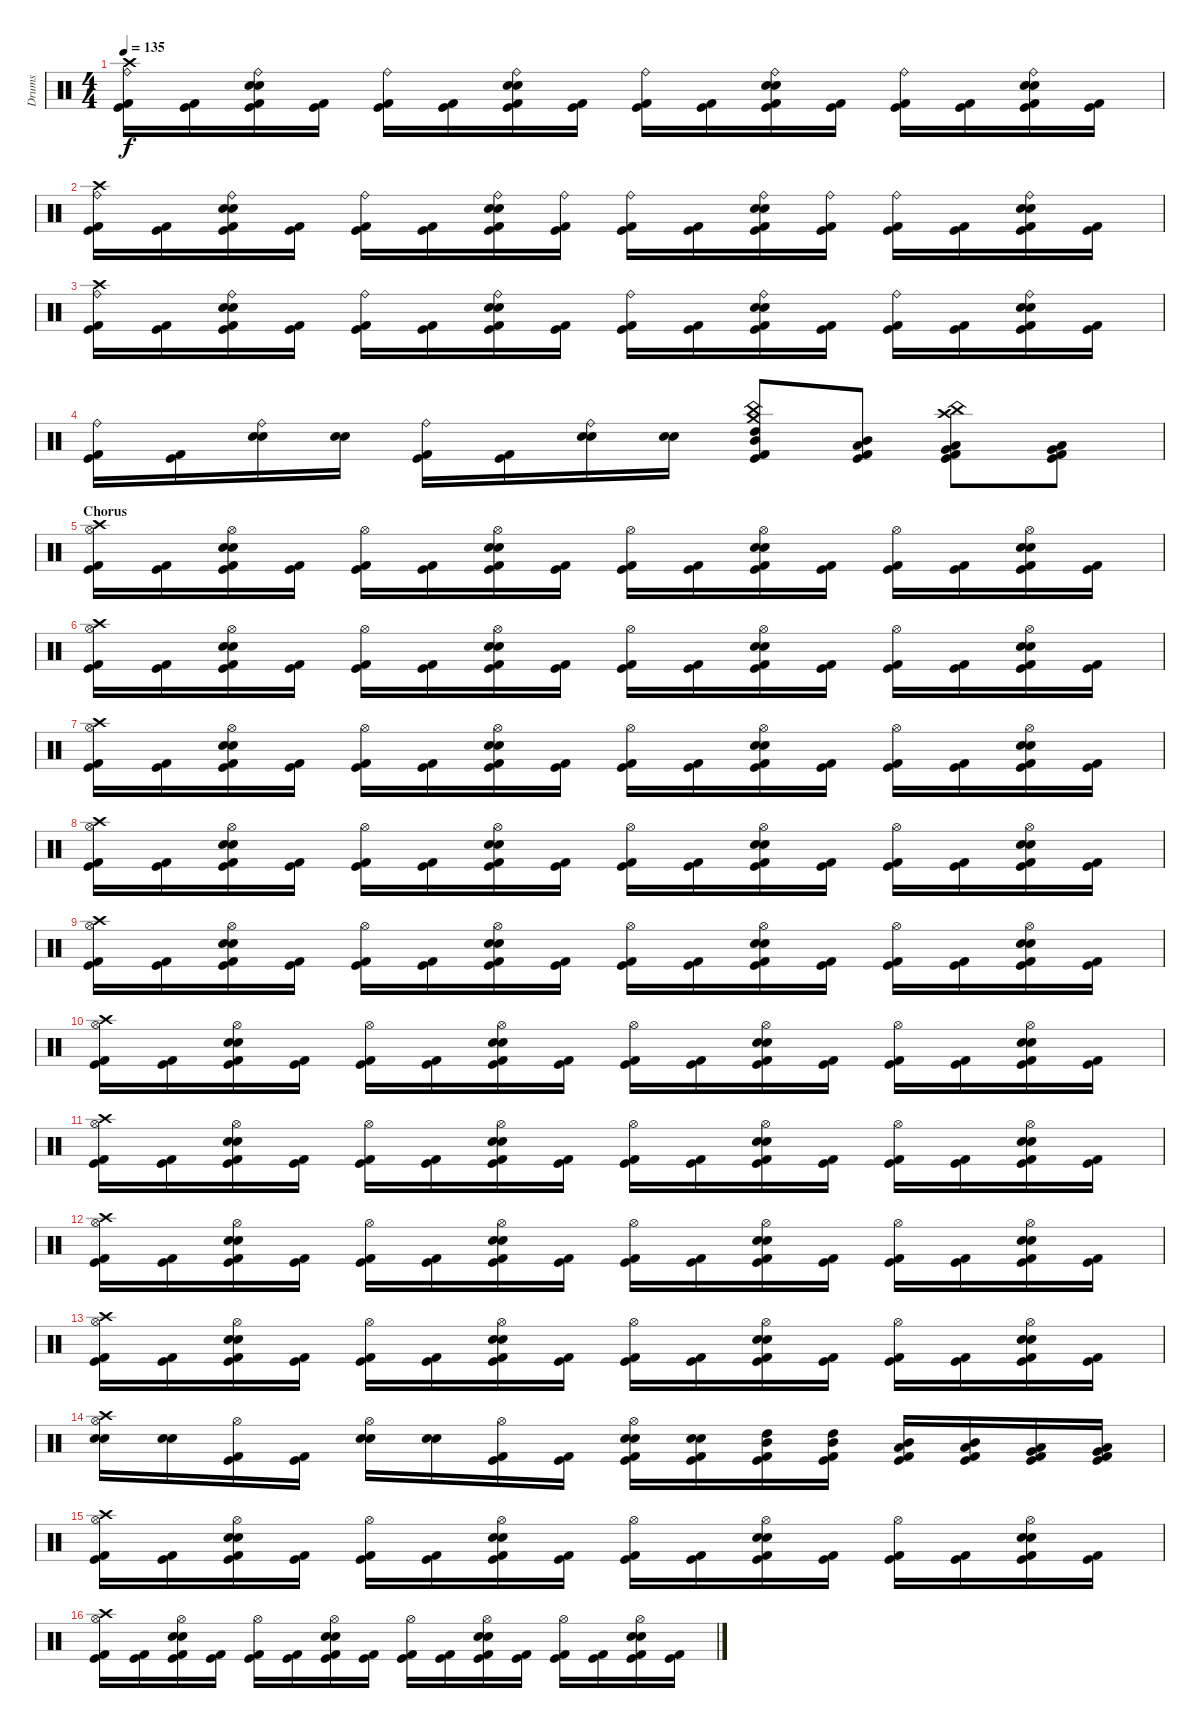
\track ("Drums" "Drums") {instrument percussion}
\staff {score}
\articulation defaults
\ts (4 4)
\tempo 135
\clef neutral
\ks c
("Crash high (hit)" "Ride (bell)" "Kick (hit) 2" "Kick (hit)").16{dy f} ("Kick (hit) 2" "Kick (hit)").16 ("Ride (bell)" "Snare (hit) 2" "Electric Snare (hit)" "Kick (hit) 2" "Kick (hit)").16 ("Kick (hit) 2" "Kick (hit)").16 ("Ride (bell)" "Kick (hit) 2" "Kick (hit)").16 ("Kick (hit) 2" "Kick (hit)").16 ("Ride (bell)" "Snare (hit) 2" "Electric Snare (hit)" "Kick (hit) 2" "Kick (hit)").16 ("Kick (hit) 2" "Kick (hit)").16 ("Ride (bell)" "Kick (hit) 2" "Kick (hit)").16 ("Kick (hit) 2" "Kick (hit)").16 ("Ride (bell)" "Snare (hit) 2" "Electric Snare (hit)" "Kick (hit) 2" "Kick (hit)").16 ("Kick (hit) 2" "Kick (hit)").16 ("Ride (bell)" "Kick (hit) 2" "Kick (hit)").16 ("Kick (hit) 2" "Kick (hit)").16 ("Ride (bell)" "Snare (hit) 2" "Electric Snare (hit)" "Kick (hit) 2" "Kick (hit)").16 ("Kick (hit) 2" "Kick (hit)").16 |
("Crash high (hit)" "Ride (bell)" "Kick (hit) 2" "Kick (hit)").16 ("Kick (hit) 2" "Kick (hit)").16 ("Ride (bell)" "Snare (hit) 2" "Electric Snare (hit)" "Kick (hit) 2" "Kick (hit)").16 ("Kick (hit) 2" "Kick (hit)").16 ("Ride (bell)" "Kick (hit) 2" "Kick (hit)").16 ("Kick (hit) 2" "Kick (hit)").16 ("Ride (bell)" "Snare (hit) 2" "Electric Snare (hit)" "Kick (hit) 2" "Kick (hit)").16 ("Ride (bell)" "Kick (hit) 2" "Kick (hit)").16 ("Ride (bell)" "Kick (hit) 2" "Kick (hit)").16 ("Kick (hit) 2" "Kick (hit)").16 ("Ride (bell)" "Snare (hit) 2" "Electric Snare (hit)" "Kick (hit) 2" "Kick (hit)").16 ("Ride (bell)" "Kick (hit) 2" "Kick (hit)").16 ("Ride (bell)" "Kick (hit) 2" "Kick (hit)").16 ("Kick (hit) 2" "Kick (hit)").16 ("Ride (bell)" "Snare (hit) 2" "Electric Snare (hit)" "Kick (hit) 2" "Kick (hit)").16 ("Kick (hit) 2" "Kick (hit)").16 |
("Crash high (hit)" "Ride (bell)" "Kick (hit) 2" "Kick (hit)").16 ("Kick (hit) 2" "Kick (hit)").16 ("Ride (bell)" "Snare (hit) 2" "Electric Snare (hit)" "Kick (hit) 2" "Kick (hit)").16 ("Kick (hit) 2" "Kick (hit)").16 ("Ride (bell)" "Kick (hit) 2" "Kick (hit)").16 ("Kick (hit) 2" "Kick (hit)").16 ("Ride (bell)" "Snare (hit) 2" "Electric Snare (hit)" "Kick (hit) 2" "Kick (hit)").16 ("Kick (hit) 2" "Kick (hit)").16 ("Ride (bell)" "Kick (hit) 2" "Kick (hit)").16 ("Kick (hit) 2" "Kick (hit)").16 ("Ride (bell)" "Snare (hit) 2" "Electric Snare (hit)" "Kick (hit) 2" "Kick (hit)").16 ("Kick (hit) 2" "Kick (hit)").16 ("Ride (bell)" "Kick (hit) 2" "Kick (hit)").16 ("Kick (hit) 2" "Kick (hit)").16 ("Ride (bell)" "Snare (hit) 2" "Electric Snare (hit)" "Kick (hit) 2" "Kick (hit)").16 ("Kick (hit) 2" "Kick (hit)").16 |
("Ride (bell)" "Kick (hit) 2" "Kick (hit)").16 ("Kick (hit) 2" "Kick (hit)").16 ("Ride (bell)" "Electric Snare (hit)" "Snare (hit) 2").16 ("Electric Snare (hit)" "Snare (hit) 2").16 ("Ride (bell)" "Kick (hit) 2" "Kick (hit)").16 ("Kick (hit) 2" "Kick (hit)").16 ("Ride (bell)" "Electric Snare (hit)" "Snare (hit) 2").16 ("Electric Snare (hit)" "Snare (hit) 2").16 ("Crash medium (hit)" "China (hit)" "High Tom (hit)" "Mid Tom (hit)" "Kick (hit) 2" "Kick (hit)").8 ("Mid Tom (hit)" "Low Tom (hit)" "Kick (hit) 2" "Kick (hit)").8 ("Crash high (hit)" "China (hit)" "Low Tom (hit)" "Very Low Tom (hit)" "Kick (hit)" "Kick (hit) 2").8 ("Low Floor Tom (hit)" "Very Low Tom (hit)" "Kick (hit) 2" "Kick (hit)").8 |
\section ("" "Chorus")
("Crash high (hit)" "Hi-Hat (open)" "Kick (hit) 2" "Kick (hit)").16 ("Kick (hit) 2" "Kick (hit)").16 ("Hi-Hat (open)" "Snare (hit) 2" "Electric Snare (hit)" "Kick (hit) 2" "Kick (hit)").16 ("Kick (hit) 2" "Kick (hit)").16 ("Hi-Hat (open)" "Kick (hit) 2" "Kick (hit)").16 ("Kick (hit) 2" "Kick (hit)").16 ("Hi-Hat (open)" "Snare (hit) 2" "Electric Snare (hit)" "Kick (hit) 2" "Kick (hit)").16 ("Kick (hit) 2" "Kick (hit)").16 ("Hi-Hat (open)" "Kick (hit) 2" "Kick (hit)").16 ("Kick (hit) 2" "Kick (hit)").16 ("Hi-Hat (open)" "Snare (hit) 2" "Electric Snare (hit)" "Kick (hit) 2" "Kick (hit)").16 ("Kick (hit) 2" "Kick (hit)").16 ("Hi-Hat (open)" "Kick (hit) 2" "Kick (hit)").16 ("Kick (hit) 2" "Kick (hit)").16 ("Hi-Hat (open)" "Snare (hit) 2" "Electric Snare (hit)" "Kick (hit) 2" "Kick (hit)").16 ("Kick (hit) 2" "Kick (hit)").16 |
("Crash high (hit)" "Hi-Hat (open)" "Kick (hit) 2" "Kick (hit)").16 ("Kick (hit) 2" "Kick (hit)").16 ("Hi-Hat (open)" "Snare (hit) 2" "Electric Snare (hit)" "Kick (hit) 2" "Kick (hit)").16 ("Kick (hit) 2" "Kick (hit)").16 ("Hi-Hat (open)" "Kick (hit) 2" "Kick (hit)").16 ("Kick (hit) 2" "Kick (hit)").16 ("Hi-Hat (open)" "Snare (hit) 2" "Electric Snare (hit)" "Kick (hit) 2" "Kick (hit)").16 ("Kick (hit) 2" "Kick (hit)").16 ("Hi-Hat (open)" "Kick (hit) 2" "Kick (hit)").16 ("Kick (hit) 2" "Kick (hit)").16 ("Hi-Hat (open)" "Snare (hit) 2" "Electric Snare (hit)" "Kick (hit) 2" "Kick (hit)").16 ("Kick (hit) 2" "Kick (hit)").16 ("Hi-Hat (open)" "Kick (hit) 2" "Kick (hit)").16 ("Kick (hit) 2" "Kick (hit)").16 ("Hi-Hat (open)" "Snare (hit) 2" "Electric Snare (hit)" "Kick (hit) 2" "Kick (hit)").16 ("Kick (hit) 2" "Kick (hit)").16 |
("Crash high (hit)" "Hi-Hat (open)" "Kick (hit) 2" "Kick (hit)").16 ("Kick (hit) 2" "Kick (hit)").16 ("Hi-Hat (open)" "Snare (hit) 2" "Electric Snare (hit)" "Kick (hit) 2" "Kick (hit)").16 ("Kick (hit) 2" "Kick (hit)").16 ("Hi-Hat (open)" "Kick (hit) 2" "Kick (hit)").16 ("Kick (hit) 2" "Kick (hit)").16 ("Hi-Hat (open)" "Snare (hit) 2" "Electric Snare (hit)" "Kick (hit) 2" "Kick (hit)").16 ("Kick (hit) 2" "Kick (hit)").16 ("Hi-Hat (open)" "Kick (hit) 2" "Kick (hit)").16 ("Kick (hit) 2" "Kick (hit)").16 ("Hi-Hat (open)" "Snare (hit) 2" "Electric Snare (hit)" "Kick (hit) 2" "Kick (hit)").16 ("Kick (hit) 2" "Kick (hit)").16 ("Hi-Hat (open)" "Kick (hit) 2" "Kick (hit)").16 ("Kick (hit) 2" "Kick (hit)").16 ("Hi-Hat (open)" "Snare (hit) 2" "Electric Snare (hit)" "Kick (hit) 2" "Kick (hit)").16 ("Kick (hit) 2" "Kick (hit)").16 |
("Crash high (hit)" "Hi-Hat (open)" "Kick (hit) 2" "Kick (hit)").16 ("Kick (hit) 2" "Kick (hit)").16 ("Hi-Hat (open)" "Snare (hit) 2" "Electric Snare (hit)" "Kick (hit) 2" "Kick (hit)").16 ("Kick (hit) 2" "Kick (hit)").16 ("Hi-Hat (open)" "Kick (hit) 2" "Kick (hit)").16 ("Kick (hit) 2" "Kick (hit)").16 ("Hi-Hat (open)" "Snare (hit) 2" "Electric Snare (hit)" "Kick (hit) 2" "Kick (hit)").16 ("Kick (hit) 2" "Kick (hit)").16 ("Hi-Hat (open)" "Kick (hit) 2" "Kick (hit)").16 ("Kick (hit) 2" "Kick (hit)").16 ("Hi-Hat (open)" "Snare (hit) 2" "Electric Snare (hit)" "Kick (hit) 2" "Kick (hit)").16 ("Kick (hit) 2" "Kick (hit)").16 ("Hi-Hat (open)" "Kick (hit) 2" "Kick (hit)").16 ("Kick (hit) 2" "Kick (hit)").16 ("Hi-Hat (open)" "Snare (hit) 2" "Electric Snare (hit)" "Kick (hit) 2" "Kick (hit)").16 ("Kick (hit) 2" "Kick (hit)").16 |
("Crash high (hit)" "Hi-Hat (open)" "Kick (hit) 2" "Kick (hit)").16 ("Kick (hit) 2" "Kick (hit)").16 ("Hi-Hat (open)" "Snare (hit) 2" "Electric Snare (hit)" "Kick (hit) 2" "Kick (hit)").16 ("Kick (hit) 2" "Kick (hit)").16 ("Hi-Hat (open)" "Kick (hit) 2" "Kick (hit)").16 ("Kick (hit) 2" "Kick (hit)").16 ("Hi-Hat (open)" "Snare (hit) 2" "Electric Snare (hit)" "Kick (hit) 2" "Kick (hit)").16 ("Kick (hit) 2" "Kick (hit)").16 ("Hi-Hat (open)" "Kick (hit) 2" "Kick (hit)").16 ("Kick (hit) 2" "Kick (hit)").16 ("Hi-Hat (open)" "Snare (hit) 2" "Electric Snare (hit)" "Kick (hit) 2" "Kick (hit)").16 ("Kick (hit) 2" "Kick (hit)").16 ("Hi-Hat (open)" "Kick (hit) 2" "Kick (hit)").16 ("Kick (hit) 2" "Kick (hit)").16 ("Hi-Hat (open)" "Snare (hit) 2" "Electric Snare (hit)" "Kick (hit) 2" "Kick (hit)").16 ("Kick (hit) 2" "Kick (hit)").16 |
("Crash high (hit)" "Hi-Hat (open)" "Kick (hit) 2" "Kick (hit)").16 ("Kick (hit) 2" "Kick (hit)").16 ("Hi-Hat (open)" "Snare (hit) 2" "Electric Snare (hit)" "Kick (hit) 2" "Kick (hit)").16 ("Kick (hit) 2" "Kick (hit)").16 ("Hi-Hat (open)" "Kick (hit) 2" "Kick (hit)").16 ("Kick (hit) 2" "Kick (hit)").16 ("Hi-Hat (open)" "Snare (hit) 2" "Electric Snare (hit)" "Kick (hit) 2" "Kick (hit)").16 ("Kick (hit) 2" "Kick (hit)").16 ("Hi-Hat (open)" "Kick (hit) 2" "Kick (hit)").16 ("Kick (hit) 2" "Kick (hit)").16 ("Hi-Hat (open)" "Snare (hit) 2" "Electric Snare (hit)" "Kick (hit) 2" "Kick (hit)").16 ("Kick (hit) 2" "Kick (hit)").16 ("Hi-Hat (open)" "Kick (hit) 2" "Kick (hit)").16 ("Kick (hit) 2" "Kick (hit)").16 ("Hi-Hat (open)" "Snare (hit) 2" "Electric Snare (hit)" "Kick (hit) 2" "Kick (hit)").16 ("Kick (hit) 2" "Kick (hit)").16 |
("Crash high (hit)" "Hi-Hat (open)" "Kick (hit) 2" "Kick (hit)").16 ("Kick (hit) 2" "Kick (hit)").16 ("Hi-Hat (open)" "Snare (hit) 2" "Electric Snare (hit)" "Kick (hit) 2" "Kick (hit)").16 ("Kick (hit) 2" "Kick (hit)").16 ("Hi-Hat (open)" "Kick (hit) 2" "Kick (hit)").16 ("Kick (hit) 2" "Kick (hit)").16 ("Hi-Hat (open)" "Snare (hit) 2" "Electric Snare (hit)" "Kick (hit) 2" "Kick (hit)").16 ("Kick (hit) 2" "Kick (hit)").16 ("Hi-Hat (open)" "Kick (hit) 2" "Kick (hit)").16 ("Kick (hit) 2" "Kick (hit)").16 ("Hi-Hat (open)" "Snare (hit) 2" "Electric Snare (hit)" "Kick (hit) 2" "Kick (hit)").16 ("Kick (hit) 2" "Kick (hit)").16 ("Hi-Hat (open)" "Kick (hit) 2" "Kick (hit)").16 ("Kick (hit) 2" "Kick (hit)").16 ("Hi-Hat (open)" "Snare (hit) 2" "Electric Snare (hit)" "Kick (hit) 2" "Kick (hit)").16 ("Kick (hit) 2" "Kick (hit)").16 |
("Crash high (hit)" "Hi-Hat (open)" "Kick (hit) 2" "Kick (hit)").16 ("Kick (hit) 2" "Kick (hit)").16 ("Hi-Hat (open)" "Snare (hit) 2" "Electric Snare (hit)" "Kick (hit) 2" "Kick (hit)").16 ("Kick (hit) 2" "Kick (hit)").16 ("Hi-Hat (open)" "Kick (hit) 2" "Kick (hit)").16 ("Kick (hit) 2" "Kick (hit)").16 ("Hi-Hat (open)" "Snare (hit) 2" "Electric Snare (hit)" "Kick (hit) 2" "Kick (hit)").16 ("Kick (hit) 2" "Kick (hit)").16 ("Hi-Hat (open)" "Kick (hit) 2" "Kick (hit)").16 ("Kick (hit) 2" "Kick (hit)").16 ("Hi-Hat (open)" "Snare (hit) 2" "Electric Snare (hit)" "Kick (hit) 2" "Kick (hit)").16 ("Kick (hit) 2" "Kick (hit)").16 ("Hi-Hat (open)" "Kick (hit) 2" "Kick (hit)").16 ("Kick (hit) 2" "Kick (hit)").16 ("Hi-Hat (open)" "Snare (hit) 2" "Electric Snare (hit)" "Kick (hit) 2" "Kick (hit)").16 ("Kick (hit) 2" "Kick (hit)").16 |
("Crash high (hit)" "Hi-Hat (open)" "Kick (hit) 2" "Kick (hit)").16 ("Kick (hit) 2" "Kick (hit)").16 ("Hi-Hat (open)" "Snare (hit) 2" "Electric Snare (hit)" "Kick (hit) 2" "Kick (hit)").16 ("Kick (hit) 2" "Kick (hit)").16 ("Hi-Hat (open)" "Kick (hit) 2" "Kick (hit)").16 ("Kick (hit) 2" "Kick (hit)").16 ("Hi-Hat (open)" "Snare (hit) 2" "Electric Snare (hit)" "Kick (hit) 2" "Kick (hit)").16 ("Kick (hit) 2" "Kick (hit)").16 ("Hi-Hat (open)" "Kick (hit) 2" "Kick (hit)").16 ("Kick (hit) 2" "Kick (hit)").16 ("Hi-Hat (open)" "Snare (hit) 2" "Electric Snare (hit)" "Kick (hit) 2" "Kick (hit)").16 ("Kick (hit) 2" "Kick (hit)").16 ("Hi-Hat (open)" "Kick (hit) 2" "Kick (hit)").16 ("Kick (hit) 2" "Kick (hit)").16 ("Hi-Hat (open)" "Snare (hit) 2" "Electric Snare (hit)" "Kick (hit) 2" "Kick (hit)").16 ("Kick (hit) 2" "Kick (hit)").16 |
("Crash high (hit)" "Hi-Hat (open)" "Electric Snare (hit)" "Snare (hit) 2").16 ("Snare (hit) 2" "Electric Snare (hit)").16 ("Hi-Hat (open)" "Kick (hit) 2" "Kick (hit)").16 ("Kick (hit) 2" "Kick (hit)").16 ("Hi-Hat (open)" "Electric Snare (hit)" "Snare (hit) 2").16 ("Electric Snare (hit)" "Snare (hit) 2").16 ("Hi-Hat (open)" "Kick (hit) 2" "Kick (hit)").16 ("Kick (hit) 2" "Kick (hit)").16 ("Hi-Hat (open)" "Electric Snare (hit)" "Snare (hit) 2" "Kick (hit) 2" "Kick (hit)").16 ("Electric Snare (hit)" "Snare (hit) 2" "Kick (hit) 2" "Kick (hit)").16 ("High Tom (hit)" "Mid Tom (hit)" "Kick (hit) 2" "Kick (hit)").16 ("High Tom (hit)" "Mid Tom (hit)" "Kick (hit) 2" "Kick (hit)").16 ("Mid Tom (hit)" "Low Tom (hit)" "Kick (hit) 2" "Kick (hit)").16 ("Mid Tom (hit)" "Low Tom (hit)" "Kick (hit) 2" "Kick (hit)").16 ("Low Tom (hit)" "Very Low Tom (hit)" "Kick (hit) 2" "Kick (hit)").16 ("Low Tom (hit)" "Very Low Tom (hit)" "Kick (hit) 2" "Kick (hit)").16 |
("Crash high (hit)" "Hi-Hat (open)" "Kick (hit) 2" "Kick (hit)").16 ("Kick (hit) 2" "Kick (hit)").16 ("Hi-Hat (open)" "Snare (hit) 2" "Electric Snare (hit)" "Kick (hit) 2" "Kick (hit)").16 ("Kick (hit) 2" "Kick (hit)").16 ("Hi-Hat (open)" "Kick (hit) 2" "Kick (hit)").16 ("Kick (hit) 2" "Kick (hit)").16 ("Hi-Hat (open)" "Snare (hit) 2" "Electric Snare (hit)" "Kick (hit) 2" "Kick (hit)").16 ("Kick (hit) 2" "Kick (hit)").16 ("Hi-Hat (open)" "Kick (hit) 2" "Kick (hit)").16 ("Kick (hit) 2" "Kick (hit)").16 ("Hi-Hat (open)" "Snare (hit) 2" "Electric Snare (hit)" "Kick (hit) 2" "Kick (hit)").16 ("Kick (hit) 2" "Kick (hit)").16 ("Hi-Hat (open)" "Kick (hit) 2" "Kick (hit)").16 ("Kick (hit) 2" "Kick (hit)").16 ("Hi-Hat (open)" "Snare (hit) 2" "Electric Snare (hit)" "Kick (hit) 2" "Kick (hit)").16 ("Kick (hit) 2" "Kick (hit)").16 |
("Crash high (hit)" "Hi-Hat (open)" "Kick (hit) 2" "Kick (hit)").16 ("Kick (hit) 2" "Kick (hit)").16 ("Hi-Hat (open)" "Snare (hit) 2" "Electric Snare (hit)" "Kick (hit) 2" "Kick (hit)").16 ("Kick (hit) 2" "Kick (hit)").16 ("Hi-Hat (open)" "Kick (hit) 2" "Kick (hit)").16 ("Kick (hit) 2" "Kick (hit)").16 ("Hi-Hat (open)" "Snare (hit) 2" "Electric Snare (hit)" "Kick (hit) 2" "Kick (hit)").16 ("Kick (hit) 2" "Kick (hit)").16 ("Hi-Hat (open)" "Kick (hit) 2" "Kick (hit)").16 ("Kick (hit) 2" "Kick (hit)").16 ("Hi-Hat (open)" "Snare (hit) 2" "Electric Snare (hit)" "Kick (hit) 2" "Kick (hit)").16 ("Kick (hit) 2" "Kick (hit)").16 ("Hi-Hat (open)" "Kick (hit) 2" "Kick (hit)").16 ("Kick (hit) 2" "Kick (hit)").16 ("Hi-Hat (open)" "Snare (hit) 2" "Electric Snare (hit)" "Kick (hit) 2" "Kick (hit)").16 ("Kick (hit) 2" "Kick (hit)").16
